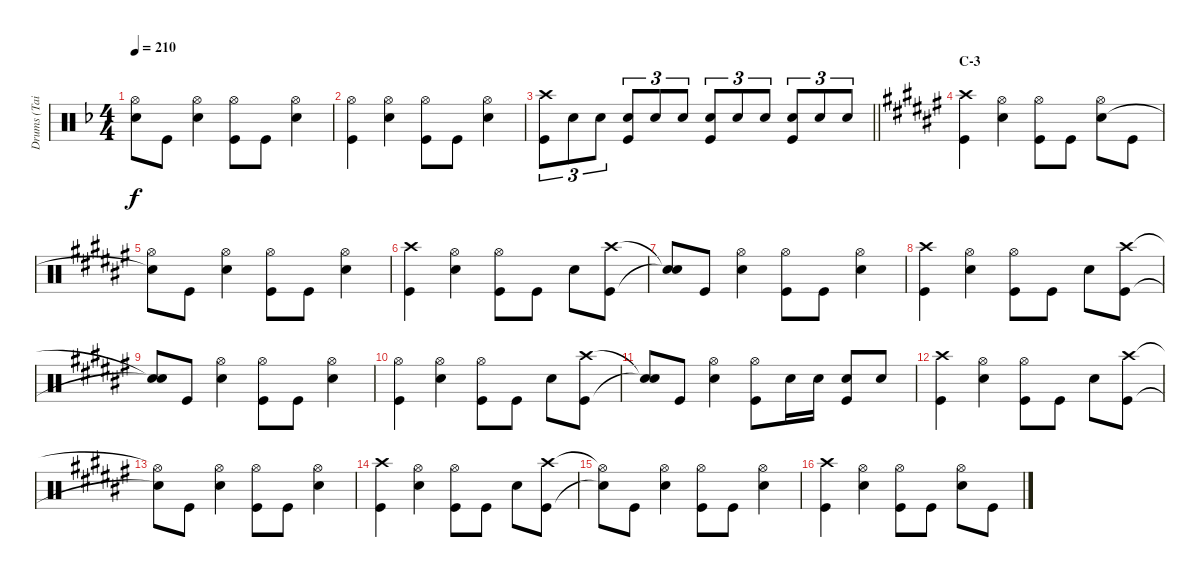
\track ("Drums (Tainaka Ritsu)" "Drums (Tai") {instrument percussion}
\staff {score}
\articulation defaults
\ts (4 4)
\tempo 210
\clef neutral
\ks f
("Hi-Hat (open)" "Snare (hit)"{t}).8{dy f} "Kick (hit)".8 ("Hi-Hat (open)" "Snare (hit) 2").4 ("Hi-Hat (open)" "Kick (hit)").8 "Kick (hit)".8 ("Hi-Hat (open)" "Snare (hit) 2").4 |
("Hi-Hat (open)" "Kick (hit)").4 ("Hi-Hat (open)" "Snare (hit) 2").4 ("Hi-Hat (open)" "Kick (hit)").8 "Kick (hit)".8 ("Hi-Hat (open)" "Snare (hit) 2").4 |
\barLineRight lightlight
("Crash high (hit)" "Kick (hit)").8{tu (3 2)} "Snare (hit) 2".8{tu (3 2)} "Snare (hit) 2".8{tu (3 2)} ("Snare (hit) 2" "Kick (hit)").8{tu (3 2)} "Snare (hit) 2".8{tu (3 2)} "Snare (hit) 2".8{tu (3 2)} ("Snare (hit) 2" "Kick (hit)").8{tu (3 2)} "Snare (hit) 2".8{tu (3 2)} "Snare (hit) 2".8{tu (3 2)} ("Snare (hit) 2" "Kick (hit)").8{tu (3 2)} "Snare (hit) 2".8{tu (3 2)} "Snare (hit) 2".8{tu (3 2)} |
\section ("" "C-3")
\ks f#
("Crash high (hit)" "Kick (hit)").4 ("Hi-Hat (open)" "Snare (hit) 2").4 ("Hi-Hat (open)" "Kick (hit)").8 "Kick (hit)".8 ("Hi-Hat (open)" "Snare (hit) 2").8 "Kick (hit)".8 |
("Hi-Hat (open)" "Snare (hit)"{t}).8 "Kick (hit)".8 ("Hi-Hat (open)" "Snare (hit) 2").4 ("Hi-Hat (open)" "Kick (hit)").8 "Kick (hit)".8 ("Hi-Hat (open)" "Snare (hit) 2").4 |
("Crash high (hit)" "Kick (hit)").4 ("Hi-Hat (open)" "Snare (hit) 2").4 ("Hi-Hat (open)" "Kick (hit)").8 "Kick (hit)".8 "Snare (hit) 2".8 ("Crash high (hit)" "Kick (hit)").8 |
("Snare (hit)"{t} "Snare (hit)"{t}).8 "Kick (hit)".8 ("Hi-Hat (open)" "Snare (hit) 2").4 ("Hi-Hat (open)" "Kick (hit)").8 "Kick (hit)".8 ("Hi-Hat (open)" "Snare (hit) 2").4 |
("Crash high (hit)" "Kick (hit)").4 ("Hi-Hat (open)" "Snare (hit) 2").4 ("Hi-Hat (open)" "Kick (hit)").8 "Kick (hit)".8 "Snare (hit) 2".8 ("Crash high (hit)" "Kick (hit)").8 |
("Snare (hit)"{t} "Snare (hit)"{t}).8 "Kick (hit)".8 ("Hi-Hat (open)" "Snare (hit) 2").4 ("Hi-Hat (open)" "Kick (hit)").8 "Kick (hit)".8 ("Hi-Hat (open)" "Snare (hit) 2").4 |
("Hi-Hat (open)" "Kick (hit)").4 ("Hi-Hat (open)" "Snare (hit) 2").4 ("Hi-Hat (open)" "Kick (hit)").8 "Kick (hit)".8 "Snare (hit) 2".8 ("Crash high (hit)" "Kick (hit)").8 |
("Snare (hit)"{t} "Snare (hit)"{t}).8 "Kick (hit)".8 ("Hi-Hat (open)" "Snare (hit) 2").4 ("Hi-Hat (open)" "Kick (hit)").8 "Snare (hit) 2".16 "Snare (hit) 2".16 ("Snare (hit) 2" "Kick (hit)").8 "Snare (hit) 2".8 |
("Crash high (hit)" "Kick (hit)").4 ("Hi-Hat (open)" "Snare (hit) 2").4 ("Hi-Hat (open)" "Kick (hit)").8 "Kick (hit)".8 "Snare (hit) 2".8 ("Crash high (hit)" "Kick (hit)").8 |
("Hi-Hat (open)"{t} "Snare (hit)"{t}).8 "Kick (hit)".8 ("Hi-Hat (open)" "Snare (hit) 2").4 ("Hi-Hat (open)" "Kick (hit)").8 "Kick (hit)".8 ("Hi-Hat (open)" "Snare (hit) 2").4 |
("Crash high (hit)" "Kick (hit)").4 ("Hi-Hat (open)" "Snare (hit) 2").4 ("Hi-Hat (open)" "Kick (hit)").8 "Kick (hit)".8 "Snare (hit) 2".8 ("Crash high (hit)" "Kick (hit)").8 |
("Hi-Hat (open)"{t} "Snare (hit)"{t}).8 "Kick (hit)".8 ("Hi-Hat (open)" "Snare (hit) 2").4 ("Hi-Hat (open)" "Kick (hit)").8 "Kick (hit)".8 ("Hi-Hat (open)" "Snare (hit) 2").4 |
("Crash high (hit)" "Kick (hit)").4 ("Hi-Hat (open)" "Snare (hit) 2").4 ("Hi-Hat (open)" "Kick (hit)").8 "Kick (hit)".8 ("Hi-Hat (open)" "Snare (hit) 2").8 "Kick (hit)".8
